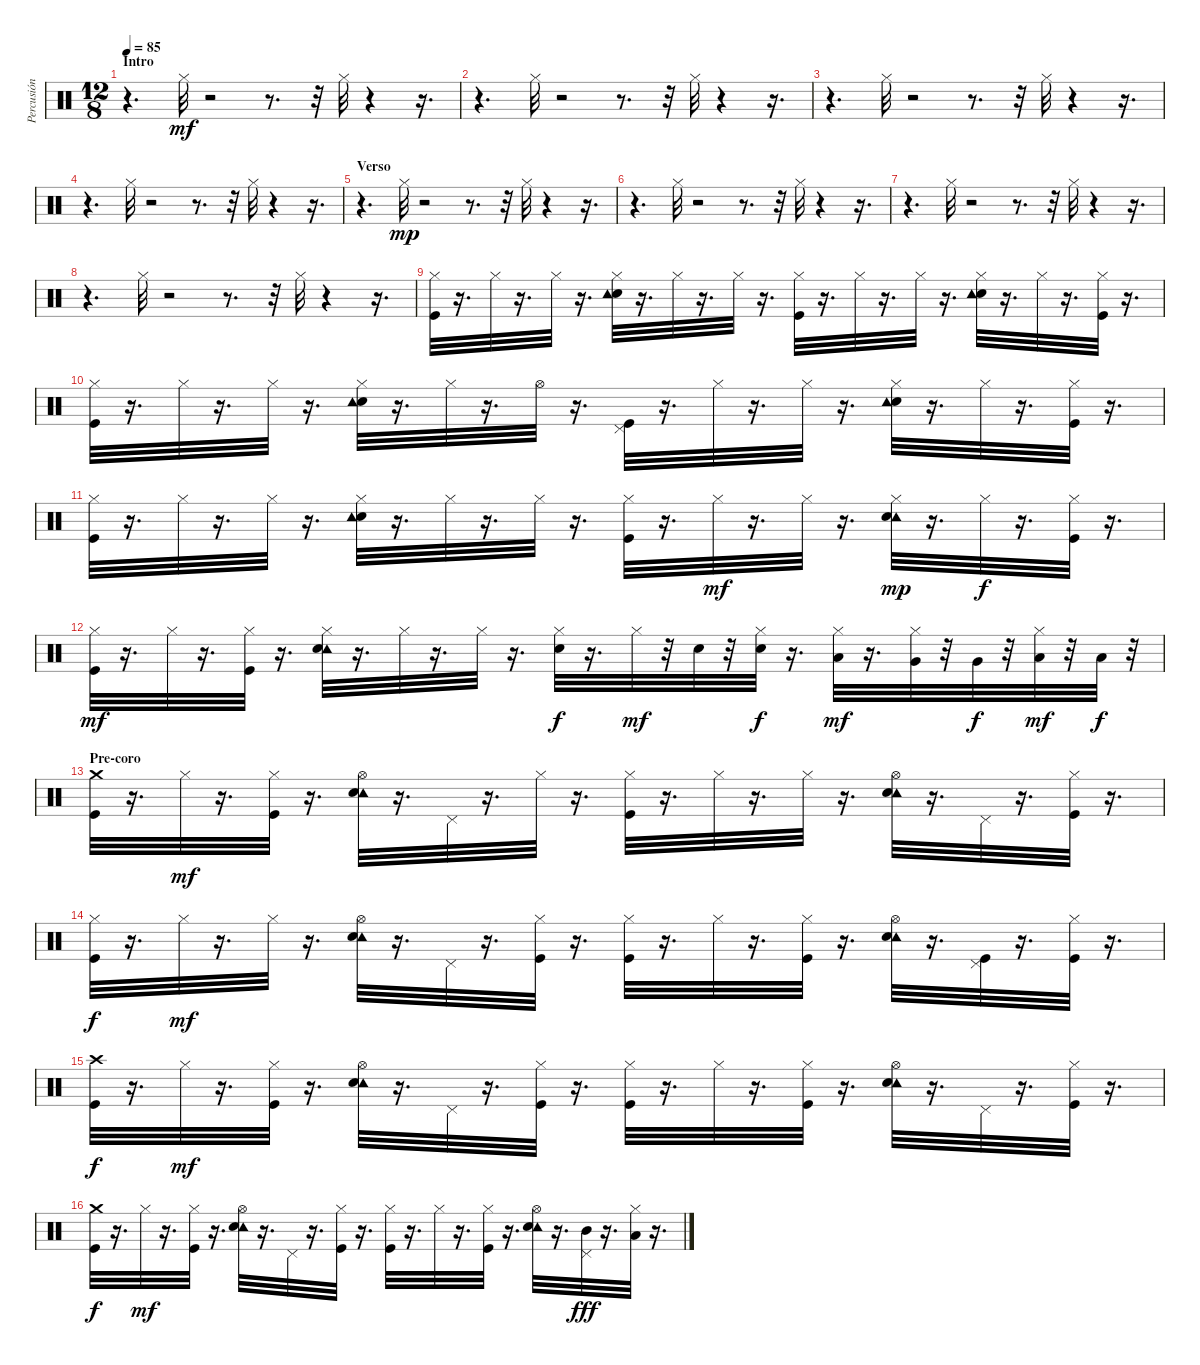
\track ("Percusión" "Percusión") {instrument percussion}
\staff {score}
\articulation defaults
\ts (12 8)
\section ("" "Intro")
\tempo 85
\clef neutral
\ks c
r.4{d dy mf} "Hi-Hat (closed)".32 r.2 r.8{d} r.32 "Hi-Hat (closed)".32 r.4 r.16{d} |
r.4{d} "Hi-Hat (closed)".32 r.2 r.8{d} r.32 "Hi-Hat (closed)".32 r.4 r.16{d} |
r.4{d} "Hi-Hat (closed)".32 r.2 r.8{d} r.32 "Hi-Hat (closed)".32 r.4 r.16{d} |
r.4{d} "Hi-Hat (closed)".32 r.2 r.8{d} r.32 "Hi-Hat (closed)".32 r.4 r.16{d} |
\section ("" "Verso")
r.4{d} "Hi-Hat (closed)".32{dy mp} r.2 r.8{d} r.32 "Hi-Hat (closed)".32 r.4 r.16{d} |
r.4{d} "Hi-Hat (closed)".32 r.2 r.8{d} r.32 "Hi-Hat (closed)".32 r.4 r.16{d} |
r.4{d} "Hi-Hat (closed)".32 r.2 r.8{d} r.32 "Hi-Hat (closed)".32 r.4 r.16{d} |
r.4{d} "Hi-Hat (closed)".32 r.2 r.8{d} r.32 "Hi-Hat (closed)".32 r.4 r.16{d} |
("Hi-Hat (closed)" "Kick (hit)").32 r.16{d} "Hi-Hat (closed)".32 r.16{d} "Hi-Hat (closed)".32 r.16{d} ("Snare (hit) 2" "Tambourine (hit)" "Hi-Hat (closed)").32 r.16{d} "Hi-Hat (closed)".32 r.16{d} "Hi-Hat (closed)".32 r.16{d} ("Kick (hit)" "Hi-Hat (closed)").32 r.16{d} "Hi-Hat (closed)".32 r.16{d} "Hi-Hat (closed)".32 r.16{d} ("Snare (hit) 2" "Tambourine (hit)" "Hi-Hat (closed)").32 r.16{d} "Hi-Hat (closed)".32 r.16{d} ("Kick (hit)" "Hi-Hat (closed)").32 r.16{d} |
("Hi-Hat (closed)" "Kick (hit)").32 r.16{d} "Hi-Hat (closed)".32 r.16{d} "Hi-Hat (closed)".32 r.16{d} ("Snare (hit) 2" "Tambourine (hit)" "Hi-Hat (closed)").32 r.16{d} "Hi-Hat (closed)".32 r.16{d} "Hi-Hat (open)".32 r.16{d} ("Pedal Hi-Hat (hit)" "Kick (hit)").32 r.16{d} "Hi-Hat (closed)".32 r.16{d} "Hi-Hat (closed)".32 r.16{d} ("Snare (hit) 2" "Tambourine (hit)" "Hi-Hat (closed)").32 r.16{d} "Hi-Hat (closed)".32 r.16{d} ("Kick (hit)" "Hi-Hat (closed)").32 r.16{d} |
("Hi-Hat (closed)" "Kick (hit)").32 r.16{d} "Hi-Hat (closed)".32 r.16{d} "Hi-Hat (closed)".32 r.16{d} ("Snare (hit) 2" "Tambourine (hit)" "Hi-Hat (closed)").32 r.16{d} "Hi-Hat (closed)".32 r.16{d} "Hi-Hat (closed)".32 r.16{d} ("Kick (hit)" "Hi-Hat (closed)").32 r.16{d} "Hi-Hat (closed)".32{dy mf} r.16{d} "Hi-Hat (closed)".32 r.16{d} ("Tambourine (hit)" "Snare (hit) 2" "Hi-Hat (closed)").32{dy mp} r.16{d} "Hi-Hat (closed)".32{dy f} r.16{d} ("Kick (hit)" "Hi-Hat (closed)").32 r.16{d} |
("Kick (hit)" "Hi-Hat (closed)").32{dy mf} r.16{d} "Hi-Hat (closed)".32 r.16{d} ("Kick (hit)" "Hi-Hat (closed)").32 r.16{d} ("Hi-Hat (closed)" "Tambourine (hit)" "Snare (hit) 2").32 r.16{d} "Hi-Hat (closed)".32 r.16{d} "Hi-Hat (closed)".32 r.16{d} ("Electric Snare (hit)" "Hi-Hat (closed)").32{dy f} r.16{d} "Hi-Hat (closed)".32{dy mf} r.32 "Electric Snare (hit)".32 r.32 ("Electric Snare (hit)" "Hi-Hat (closed)").32{dy f} r.16{d} ("Low Tom (hit)" "Hi-Hat (closed)").32{dy mf} r.16{d} ("Very Low Tom (hit)" "Hi-Hat (closed)").32 r.32 "Very Low Tom (hit)".32{dy f} r.32 ("Low Floor Tom (hit)" "Hi-Hat (closed)").32{dy mf} r.32 "Low Floor Tom (hit)".32{dy f} r.32 |
\section ("" "Pre-coro")
("Kick (hit)" "Crash medium (hit)").32 r.16{d} "Hi-Hat (closed)".32{dy mf} r.16{d} ("Hi-Hat (closed)" "Kick (hit)").32 r.16{d} ("Hi-Hat (open)" "Tambourine (hit)" "Snare (hit) 2").32 r.16{d} "Pedal Hi-Hat (hit)".32 r.16{d} "Hi-Hat (closed)".32 r.16{d} ("Hi-Hat (closed)" "Kick (hit)").32 r.16{d} "Hi-Hat (closed)".32 r.16{d} "Hi-Hat (closed)".32 r.16{d} ("Hi-Hat (open)" "Tambourine (hit)" "Snare (hit) 2").32 r.16{d} "Pedal Hi-Hat (hit)".32 r.16{d} ("Kick (hit)" "Hi-Hat (closed)").32 r.16{d} |
("Hi-Hat (closed)" "Kick (hit)").32{dy f} r.16{d} "Hi-Hat (closed)".32{dy mf} r.16{d} "Hi-Hat (closed)".32 r.16{d} ("Hi-Hat (open)" "Tambourine (hit)" "Snare (hit) 2").32 r.16{d} "Pedal Hi-Hat (hit)".32 r.16{d} ("Kick (hit)" "Hi-Hat (closed)").32 r.16{d} ("Hi-Hat (closed)" "Kick (hit)").32 r.16{d} "Hi-Hat (closed)".32 r.16{d} ("Kick (hit)" "Hi-Hat (closed)").32 r.16{d} ("Hi-Hat (open)" "Tambourine (hit)" "Snare (hit) 2").32 r.16{d} ("Kick (hit)" "Pedal Hi-Hat (hit)").32 r.16{d} ("Kick (hit)" "Hi-Hat (closed)").32 r.16{d} |
("Crash high (hit)" "Kick (hit)").32{dy f} r.16{d} "Hi-Hat (closed)".32{dy mf} r.16{d} ("Hi-Hat (closed)" "Kick (hit)").32 r.16{d} ("Hi-Hat (open)" "Tambourine (hit)" "Snare (hit) 2").32 r.16{d} "Pedal Hi-Hat (hit)".32 r.16{d} ("Kick (hit)" "Hi-Hat (closed)").32 r.16{d} ("Hi-Hat (closed)" "Kick (hit)").32 r.16{d} "Hi-Hat (closed)".32 r.16{d} ("Kick (hit)" "Hi-Hat (closed)").32 r.16{d} ("Hi-Hat (open)" "Tambourine (hit)" "Snare (hit) 2").32 r.16{d} "Pedal Hi-Hat (hit)".32 r.16{d} ("Kick (hit)" "Hi-Hat (closed)").32 r.16{d} |
("Kick (hit)" "Crash medium (hit)").32{dy f} r.16{d} "Hi-Hat (closed)".32{dy mf} r.16{d} ("Hi-Hat (closed)" "Kick (hit)").32 r.16{d} ("Tambourine (hit)" "Hi-Hat (open)" "Snare (hit) 2").32 r.16{d} "Pedal Hi-Hat (hit)".32 r.16{d} ("Kick (hit)" "Hi-Hat (closed)").32 r.16{d} ("Hi-Hat (closed)" "Kick (hit)").32 r.16{d} "Hi-Hat (closed)".32 r.16{d} ("Kick (hit)" "Hi-Hat (closed)").32 r.16{d} ("Tambourine (hit)" "Hi-Hat (open)" "Snare (hit) 2").32 r.16{d} ("Mid Tom (hit)" "Pedal Hi-Hat (hit)").32{dy fff} r.16{d} ("Low Tom (hit)" "Hi-Hat (closed)").32 r.16{d}
